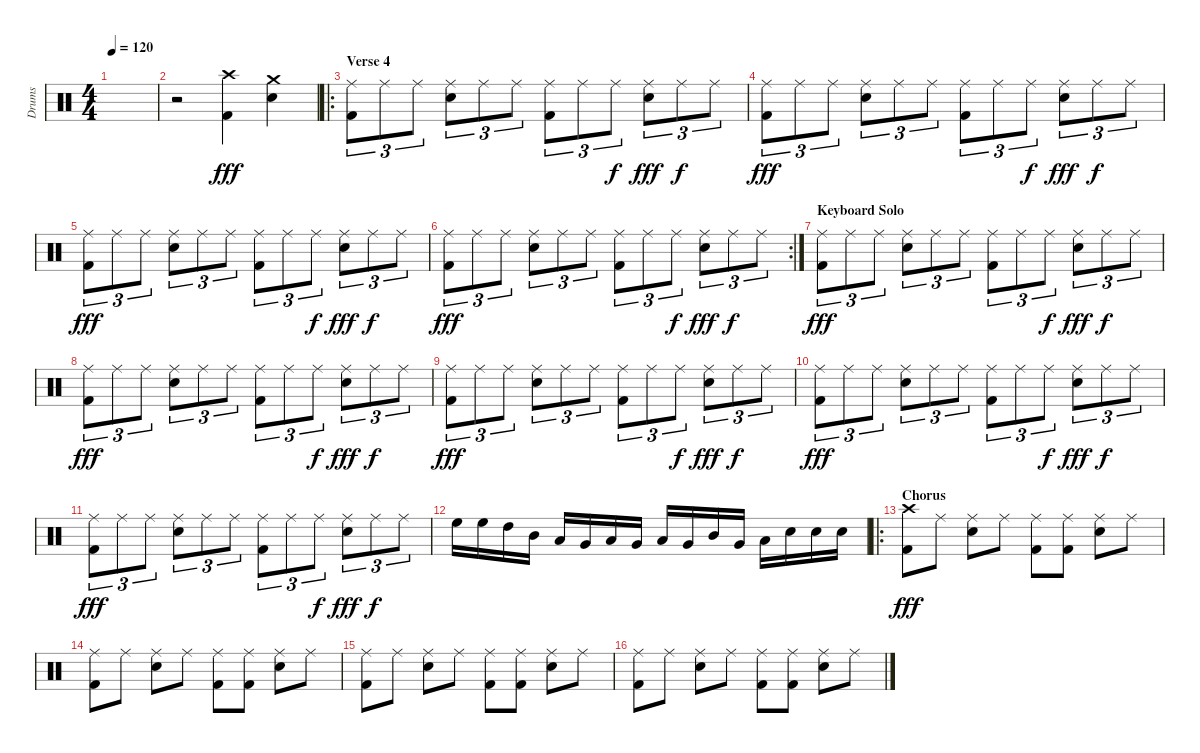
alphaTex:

\track ("Drums" "Drums") {instrument percussion}
\staff {score}
\articulation defaults
\ts (4 4)
\tempo 120
\clef neutral
\ks c
|
r.2 ("Kick (hit) 2" "Crash high (hit)").4{dy fff} ("Electric Snare (hit)" "Crash medium (hit)").4 |
\ro
\section ("" "Verse 4")
("Ride (middle)" "Kick (hit) 2").8{tu (3 2)} "Ride (middle)".8{tu (3 2)} "Ride (middle)".8{tu (3 2)} ("Ride (middle)" "Electric Snare (hit)").8{tu (3 2)} "Ride (middle)".8{tu (3 2)} "Ride (middle)".8{tu (3 2)} ("Ride (middle)" "Kick (hit) 2").8{tu (3 2)} "Ride (middle)".8{tu (3 2)} "Ride (middle)".8{tu (3 2) dy f} ("Ride (middle)" "Electric Snare (hit)").8{tu (3 2) dy fff} "Ride (middle)".8{tu (3 2) dy f} "Ride (middle)".8{tu (3 2)} |
("Ride (middle)" "Kick (hit) 2").8{tu (3 2) dy fff} "Ride (middle)".8{tu (3 2)} "Ride (middle)".8{tu (3 2)} ("Ride (middle)" "Electric Snare (hit)").8{tu (3 2)} "Ride (middle)".8{tu (3 2)} "Ride (middle)".8{tu (3 2)} ("Ride (middle)" "Kick (hit) 2").8{tu (3 2)} "Ride (middle)".8{tu (3 2)} "Ride (middle)".8{tu (3 2) dy f} ("Ride (middle)" "Electric Snare (hit)").8{tu (3 2) dy fff} "Ride (middle)".8{tu (3 2) dy f} "Ride (middle)".8{tu (3 2)} |
("Ride (middle)" "Kick (hit) 2").8{tu (3 2) dy fff} "Ride (middle)".8{tu (3 2)} "Ride (middle)".8{tu (3 2)} ("Ride (middle)" "Electric Snare (hit)").8{tu (3 2)} "Ride (middle)".8{tu (3 2)} "Ride (middle)".8{tu (3 2)} ("Ride (middle)" "Kick (hit) 2").8{tu (3 2)} "Ride (middle)".8{tu (3 2)} "Ride (middle)".8{tu (3 2) dy f} ("Ride (middle)" "Electric Snare (hit)").8{tu (3 2) dy fff} "Ride (middle)".8{tu (3 2) dy f} "Ride (middle)".8{tu (3 2)} |
\rc 2
("Ride (middle)" "Kick (hit) 2").8{tu (3 2) dy fff} "Ride (middle)".8{tu (3 2)} "Ride (middle)".8{tu (3 2)} ("Ride (middle)" "Electric Snare (hit)").8{tu (3 2)} "Ride (middle)".8{tu (3 2)} "Ride (middle)".8{tu (3 2)} ("Ride (middle)" "Kick (hit) 2").8{tu (3 2)} "Ride (middle)".8{tu (3 2)} "Ride (middle)".8{tu (3 2) dy f} ("Ride (middle)" "Electric Snare (hit)").8{tu (3 2) dy fff} "Ride (middle)".8{tu (3 2) dy f} "Ride (middle)".8{tu (3 2)} |
\section ("" "Keyboard Solo")
("Ride (middle)" "Kick (hit) 2").8{tu (3 2) dy fff} "Ride (middle)".8{tu (3 2)} "Ride (middle)".8{tu (3 2)} ("Ride (middle)" "Electric Snare (hit)").8{tu (3 2)} "Ride (middle)".8{tu (3 2)} "Ride (middle)".8{tu (3 2)} ("Ride (middle)" "Kick (hit) 2").8{tu (3 2)} "Ride (middle)".8{tu (3 2)} "Ride (middle)".8{tu (3 2) dy f} ("Ride (middle)" "Electric Snare (hit)").8{tu (3 2) dy fff} "Ride (middle)".8{tu (3 2) dy f} "Ride (middle)".8{tu (3 2)} |
("Ride (middle)" "Kick (hit) 2").8{tu (3 2) dy fff} "Ride (middle)".8{tu (3 2)} "Ride (middle)".8{tu (3 2)} ("Ride (middle)" "Electric Snare (hit)").8{tu (3 2)} "Ride (middle)".8{tu (3 2)} "Ride (middle)".8{tu (3 2)} ("Ride (middle)" "Kick (hit) 2").8{tu (3 2)} "Ride (middle)".8{tu (3 2)} "Ride (middle)".8{tu (3 2) dy f} ("Ride (middle)" "Electric Snare (hit)").8{tu (3 2) dy fff} "Ride (middle)".8{tu (3 2) dy f} "Ride (middle)".8{tu (3 2)} |
("Ride (middle)" "Kick (hit) 2").8{tu (3 2) dy fff} "Ride (middle)".8{tu (3 2)} "Ride (middle)".8{tu (3 2)} ("Ride (middle)" "Electric Snare (hit)").8{tu (3 2)} "Ride (middle)".8{tu (3 2)} "Ride (middle)".8{tu (3 2)} ("Ride (middle)" "Kick (hit) 2").8{tu (3 2)} "Ride (middle)".8{tu (3 2)} "Ride (middle)".8{tu (3 2) dy f} ("Ride (middle)" "Electric Snare (hit)").8{tu (3 2) dy fff} "Ride (middle)".8{tu (3 2) dy f} "Ride (middle)".8{tu (3 2)} |
("Ride (middle)" "Kick (hit) 2").8{tu (3 2) dy fff} "Ride (middle)".8{tu (3 2)} "Ride (middle)".8{tu (3 2)} ("Ride (middle)" "Electric Snare (hit)").8{tu (3 2)} "Ride (middle)".8{tu (3 2)} "Ride (middle)".8{tu (3 2)} ("Ride (middle)" "Kick (hit) 2").8{tu (3 2)} "Ride (middle)".8{tu (3 2)} "Ride (middle)".8{tu (3 2) dy f} ("Ride (middle)" "Electric Snare (hit)").8{tu (3 2) dy fff} "Ride (middle)".8{tu (3 2) dy f} "Ride (middle)".8{tu (3 2)} |
("Ride (middle)" "Kick (hit) 2").8{tu (3 2) dy fff} "Ride (middle)".8{tu (3 2)} "Ride (middle)".8{tu (3 2)} ("Ride (middle)" "Electric Snare (hit)").8{tu (3 2)} "Ride (middle)".8{tu (3 2)} "Ride (middle)".8{tu (3 2)} ("Ride (middle)" "Kick (hit) 2").8{tu (3 2)} "Ride (middle)".8{tu (3 2)} "Ride (middle)".8{tu (3 2) dy f} ("Ride (middle)" "Electric Snare (hit)").8{tu (3 2) dy fff} "Ride (middle)".8{tu (3 2) dy f} "Ride (middle)".8{tu (3 2)} |
"High Floor Tom (hit)".16 "High Floor Tom (hit)".16 "High Tom (hit)".16 "Mid Tom (hit)".16 "Low Tom (hit)".16 "Very Low Tom (hit)".16 "Low Floor Tom (hit)".16 "Very Low Tom (hit)".16 "Low Floor Tom (hit)".16 "Very Low Tom (hit)".16 "Mid Tom (hit)".16 "Very Low Tom (hit)".16 "Low Floor Tom (hit)".16 "Electric Snare (hit)".16 "Electric Snare (hit)".16 "Electric Snare (hit)".16 |
\ro
\section ("" "Chorus")
("Crash high (hit)" "Kick (hit) 2").8{dy fff} "Ride (middle)".8 ("Ride (middle)" "Electric Snare (hit)").8 "Ride (middle)".8 ("Ride (middle)" "Kick (hit) 2").8 ("Ride (middle)" "Kick (hit) 2").8 ("Ride (middle)" "Electric Snare (hit)").8 "Ride (middle)".8 |
("Ride (middle)" "Kick (hit) 2").8 "Ride (middle)".8 ("Ride (middle)" "Electric Snare (hit)").8 "Ride (middle)".8 ("Ride (middle)" "Kick (hit) 2").8 ("Ride (middle)" "Kick (hit) 2").8 ("Ride (middle)" "Electric Snare (hit)").8 "Ride (middle)".8 |
("Ride (middle)" "Kick (hit) 2").8 "Ride (middle)".8 ("Ride (middle)" "Electric Snare (hit)").8 "Ride (middle)".8 ("Ride (middle)" "Kick (hit) 2").8 ("Ride (middle)" "Kick (hit) 2").8 ("Ride (middle)" "Electric Snare (hit)").8 "Ride (middle)".8 |
("Ride (middle)" "Kick (hit) 2").8 "Ride (middle)".8 ("Ride (middle)" "Electric Snare (hit)").8 "Ride (middle)".8 ("Ride (middle)" "Kick (hit) 2").8 ("Ride (middle)" "Kick (hit) 2").8 ("Ride (middle)" "Electric Snare (hit)").8 "Ride (middle)".8
